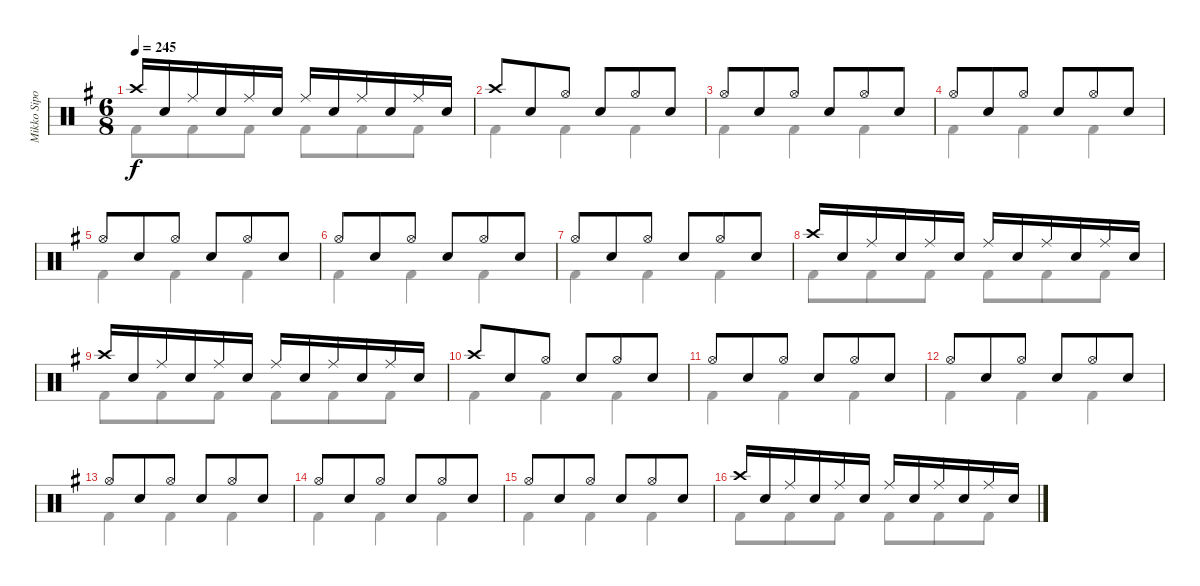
\track ("Mikko Sipola (drums)" "Mikko Sipo") {instrument percussion}
\staff {score}
\articulation defaults
\voice
\ts (6 8)
\tempo 245
\clef neutral
\ks eminor "Crash high (hit)".16{dy f} "Snare (hit) 2".16 "Ride (middle)".16 "Snare (hit) 2".16 "Ride (middle)".16 "Snare (hit) 2".16 "Ride (middle)".16 "Snare (hit) 2".16 "Ride (middle)".16 "Snare (hit) 2".16 "Ride (middle)".16 "Snare (hit) 2".16
|
"Crash high (hit)".8 "Snare (hit) 2".8 "Hi-Hat (open)".8 "Snare (hit) 2".8 "Hi-Hat (open)".8 "Snare (hit) 2".8 |
"Hi-Hat (open)".8 "Snare (hit) 2".8 "Hi-Hat (open)".8 "Snare (hit) 2".8 "Hi-Hat (open)".8 "Snare (hit) 2".8 |
"Hi-Hat (open)".8 "Snare (hit) 2".8 "Hi-Hat (open)".8 "Snare (hit) 2".8 "Hi-Hat (open)".8 "Snare (hit) 2".8 |
"Hi-Hat (open)".8 "Snare (hit) 2".8 "Hi-Hat (open)".8 "Snare (hit) 2".8 "Hi-Hat (open)".8 "Snare (hit) 2".8 |
"Hi-Hat (open)".8 "Snare (hit) 2".8 "Hi-Hat (open)".8 "Snare (hit) 2".8 "Hi-Hat (open)".8 "Snare (hit) 2".8 |
"Hi-Hat (open)".8 "Snare (hit) 2".8 "Hi-Hat (open)".8 "Snare (hit) 2".8 "Hi-Hat (open)".8 "Snare (hit) 2".8 |
"Crash high (hit)".16 "Snare (hit) 2".16 "Ride (middle)".16 "Snare (hit) 2".16 "Ride (middle)".16 "Snare (hit) 2".16 "Ride (middle)".16 "Snare (hit) 2".16 "Ride (middle)".16 "Snare (hit) 2".16 "Ride (middle)".16 "Snare (hit) 2".16 |
"Crash high (hit)".16 "Snare (hit) 2".16 "Ride (middle)".16 "Snare (hit) 2".16 "Ride (middle)".16 "Snare (hit) 2".16 "Ride (middle)".16 "Snare (hit) 2".16 "Ride (middle)".16 "Snare (hit) 2".16 "Ride (middle)".16 "Snare (hit) 2".16 |
"Crash high (hit)".8 "Snare (hit) 2".8 "Hi-Hat (open)".8 "Snare (hit) 2".8 "Hi-Hat (open)".8 "Snare (hit) 2".8 |
"Hi-Hat (open)".8 "Snare (hit) 2".8 "Hi-Hat (open)".8 "Snare (hit) 2".8 "Hi-Hat (open)".8 "Snare (hit) 2".8 |
"Hi-Hat (open)".8 "Snare (hit) 2".8 "Hi-Hat (open)".8 "Snare (hit) 2".8 "Hi-Hat (open)".8 "Snare (hit) 2".8 |
"Hi-Hat (open)".8 "Snare (hit) 2".8 "Hi-Hat (open)".8 "Snare (hit) 2".8 "Hi-Hat (open)".8 "Snare (hit) 2".8 |
"Hi-Hat (open)".8 "Snare (hit) 2".8 "Hi-Hat (open)".8 "Snare (hit) 2".8 "Hi-Hat (open)".8 "Snare (hit) 2".8 |
"Hi-Hat (open)".8 "Snare (hit) 2".8 "Hi-Hat (open)".8 "Snare (hit) 2".8 "Hi-Hat (open)".8 "Snare (hit) 2".8 |
"Crash high (hit)".16 "Snare (hit) 2".16 "Ride (middle)".16 "Snare (hit) 2".16 "Ride (middle)".16 "Snare (hit) 2".16 "Ride (middle)".16 "Snare (hit) 2".16 "Ride (middle)".16 "Snare (hit) 2".16 "Ride (middle)".16 "Snare (hit) 2".16
\voice
\clef neutral
\ottava regular
\simile none
\ks eminor "Kick (hit) 2".8{dy f} "Kick (hit) 2".8 "Kick (hit) 2".8 "Kick (hit) 2".8 "Kick (hit) 2".8 "Kick (hit) 2".8
|
"Kick (hit) 2".4 "Kick (hit) 2".4 "Kick (hit) 2".4 |
"Kick (hit) 2".4 "Kick (hit) 2".4 "Kick (hit) 2".4 |
"Kick (hit) 2".4 "Kick (hit) 2".4 "Kick (hit) 2".4 |
"Kick (hit) 2".4 "Kick (hit) 2".4 "Kick (hit) 2".4 |
"Kick (hit) 2".4 "Kick (hit) 2".4 "Kick (hit) 2".4 |
"Kick (hit) 2".4 "Kick (hit) 2".4 "Kick (hit) 2".4 |
"Kick (hit) 2".8 "Kick (hit) 2".8 "Kick (hit) 2".8 "Kick (hit) 2".8 "Kick (hit) 2".8 "Kick (hit) 2".8 |
"Kick (hit) 2".8 "Kick (hit) 2".8 "Kick (hit) 2".8 "Kick (hit) 2".8 "Kick (hit) 2".8 "Kick (hit) 2".8 |
"Kick (hit) 2".4 "Kick (hit) 2".4 "Kick (hit) 2".4 |
"Kick (hit) 2".4 "Kick (hit) 2".4 "Kick (hit) 2".4 |
"Kick (hit) 2".4 "Kick (hit) 2".4 "Kick (hit) 2".4 |
"Kick (hit) 2".4 "Kick (hit) 2".4 "Kick (hit) 2".4 |
"Kick (hit) 2".4 "Kick (hit) 2".4 "Kick (hit) 2".4 |
"Kick (hit) 2".4 "Kick (hit) 2".4 "Kick (hit) 2".4 |
"Kick (hit) 2".8 "Kick (hit) 2".8 "Kick (hit) 2".8 "Kick (hit) 2".8 "Kick (hit) 2".8 "Kick (hit) 2".8
